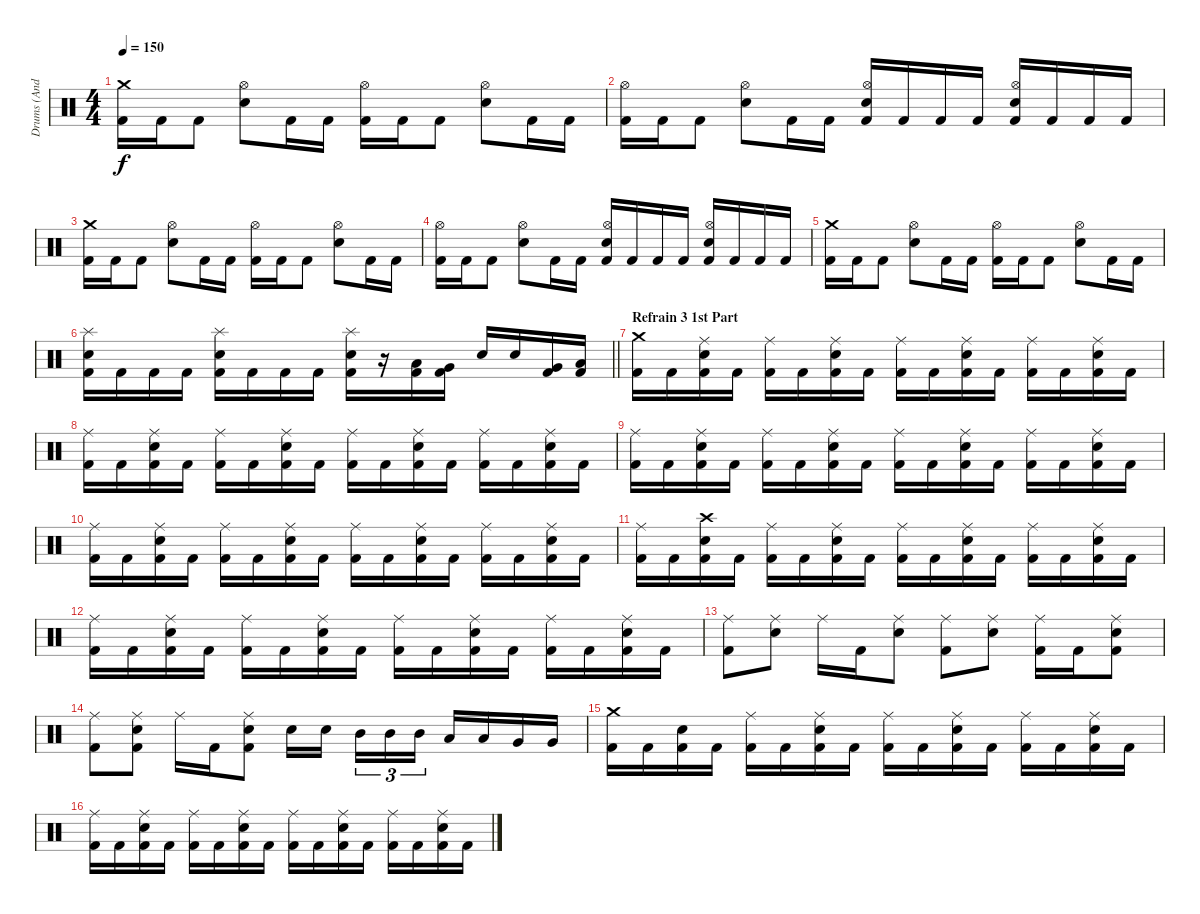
\track ("Drums (Andy C)" "Drums (And") {instrument percussion}
\staff
\articulation defaults
\ts (4 4)
\tempo 150
\clef neutral
\ks c
("Crash medium (hit)" "Kick (hit) 2").16{dy f} "Kick (hit) 2".16 "Kick (hit) 2".8 ("Hi-Hat (open)" "Electric Snare (hit)").8 "Kick (hit) 2".16 "Kick (hit) 2".16 ("Hi-Hat (open)" "Kick (hit) 2").16 "Kick (hit) 2".16 "Kick (hit) 2".8 ("Hi-Hat (open)" "Electric Snare (hit)").8 "Kick (hit) 2".16 "Kick (hit) 2".16 |
("Hi-Hat (open)" "Kick (hit) 2").16 "Kick (hit) 2".16 "Kick (hit) 2".8 ("Hi-Hat (open)" "Electric Snare (hit)").8 "Kick (hit) 2".16 "Kick (hit) 2".16 ("Hi-Hat (open)" "Kick (hit) 2" "Electric Snare (hit)").16 "Kick (hit) 2".16 "Kick (hit) 2".16 "Kick (hit) 2".16 ("Hi-Hat (open)" "Kick (hit) 2" "Electric Snare (hit)").16 "Kick (hit) 2".16 "Kick (hit) 2".16 "Kick (hit) 2".16 |
("Crash medium (hit)" "Kick (hit) 2").16 "Kick (hit) 2".16 "Kick (hit) 2".8 ("Hi-Hat (open)" "Electric Snare (hit)").8 "Kick (hit) 2".16 "Kick (hit) 2".16 ("Hi-Hat (open)" "Kick (hit) 2").16 "Kick (hit) 2".16 "Kick (hit) 2".8 ("Hi-Hat (open)" "Electric Snare (hit)").8 "Kick (hit) 2".16 "Kick (hit) 2".16 |
("Hi-Hat (open)" "Kick (hit) 2").16 "Kick (hit) 2".16 "Kick (hit) 2".8 ("Hi-Hat (open)" "Electric Snare (hit)").8 "Kick (hit) 2".16 "Kick (hit) 2".16 ("Hi-Hat (open)" "Kick (hit) 2" "Electric Snare (hit)").16 "Kick (hit) 2".16 "Kick (hit) 2".16 "Kick (hit) 2".16 ("Hi-Hat (open)" "Kick (hit) 2" "Electric Snare (hit)").16 "Kick (hit) 2".16 "Kick (hit) 2".16 "Kick (hit) 2".16 |
("Crash medium (hit)" "Kick (hit) 2").16 "Kick (hit) 2".16 "Kick (hit) 2".8 ("Hi-Hat (open)" "Electric Snare (hit)").8 "Kick (hit) 2".16 "Kick (hit) 2".16 ("Hi-Hat (open)" "Kick (hit) 2").16 "Kick (hit) 2".16 "Kick (hit) 2".8 ("Hi-Hat (open)" "Electric Snare (hit)").8 "Kick (hit) 2".16 "Kick (hit) 2".16 |
\barLineRight lightlight
("Splash (hit)" "Kick (hit) 2" "Electric Snare (hit)").16 "Kick (hit) 2".16 "Kick (hit) 2".16 "Kick (hit) 2".16 ("Splash (hit)" "Kick (hit) 2" "Electric Snare (hit)").16 "Kick (hit) 2".16 "Kick (hit) 2".16 "Kick (hit) 2".16 ("Splash (hit)" "Kick (hit) 2" "Electric Snare (hit)").16 r.16 ("Low Tom (hit)" "Kick (hit) 2").16 ("Very Low Tom (hit)" "Kick (hit) 2").16 "Electric Snare (hit)".16 "Electric Snare (hit)".16 ("Very Low Tom (hit)" "Kick (hit) 2").16 ("Low Floor Tom (hit)" "Kick (hit) 2").16 |
\section ("" "Refrain 3 1st Part")
("Crash medium (hit)" "Kick (hit) 2").16 "Kick (hit) 2".16 ("Ride (middle)" "Kick (hit) 2" "Electric Snare (hit)").16 "Kick (hit) 2".16 ("Ride (middle)" "Kick (hit) 2").16 "Kick (hit) 2".16 ("Ride (middle)" "Kick (hit) 2" "Electric Snare (hit)").16 "Kick (hit) 2".16 ("Ride (middle)" "Kick (hit) 2").16 "Kick (hit) 2".16 ("Ride (middle)" "Kick (hit) 2" "Electric Snare (hit)").16 "Kick (hit) 2".16 ("Ride (middle)" "Kick (hit) 2").16 "Kick (hit) 2".16 ("Ride (middle)" "Kick (hit) 2" "Electric Snare (hit)").16 "Kick (hit) 2".16 |
("Ride (middle)" "Kick (hit) 2").16 "Kick (hit) 2".16 ("Ride (middle)" "Kick (hit) 2" "Electric Snare (hit)").16 "Kick (hit) 2".16 ("Ride (middle)" "Kick (hit) 2").16 "Kick (hit) 2".16 ("Ride (middle)" "Kick (hit) 2" "Electric Snare (hit)").16 "Kick (hit) 2".16 ("Ride (middle)" "Kick (hit) 2").16 "Kick (hit) 2".16 ("Ride (middle)" "Kick (hit) 2" "Electric Snare (hit)").16 "Kick (hit) 2".16 ("Ride (middle)" "Kick (hit) 2").16 "Kick (hit) 2".16 ("Ride (middle)" "Kick (hit) 2" "Electric Snare (hit)").16 "Kick (hit) 2".16 |
("Ride (middle)" "Kick (hit) 2").16 "Kick (hit) 2".16 ("Ride (middle)" "Kick (hit) 2" "Electric Snare (hit)").16 "Kick (hit) 2".16 ("Ride (middle)" "Kick (hit) 2").16 "Kick (hit) 2".16 ("Ride (middle)" "Kick (hit) 2" "Electric Snare (hit)").16 "Kick (hit) 2".16 ("Ride (middle)" "Kick (hit) 2").16 "Kick (hit) 2".16 ("Ride (middle)" "Kick (hit) 2" "Electric Snare (hit)").16 "Kick (hit) 2".16 ("Ride (middle)" "Kick (hit) 2").16 "Kick (hit) 2".16 ("Ride (middle)" "Kick (hit) 2" "Electric Snare (hit)").16 "Kick (hit) 2".16 |
("Ride (middle)" "Kick (hit) 2").16 "Kick (hit) 2".16 ("Ride (middle)" "Kick (hit) 2" "Electric Snare (hit)").16 "Kick (hit) 2".16 ("Ride (middle)" "Kick (hit) 2").16 "Kick (hit) 2".16 ("Ride (middle)" "Kick (hit) 2" "Electric Snare (hit)").16 "Kick (hit) 2".16 ("Ride (middle)" "Kick (hit) 2").16 "Kick (hit) 2".16 ("Ride (middle)" "Kick (hit) 2" "Electric Snare (hit)").16 "Kick (hit) 2".16 ("Ride (middle)" "Kick (hit) 2").16 "Kick (hit) 2".16 ("Ride (middle)" "Kick (hit) 2" "Electric Snare (hit)").16 "Kick (hit) 2".16 |
("Ride (middle)" "Kick (hit) 2").16 "Kick (hit) 2".16 ("Crash high (hit)" "Kick (hit) 2" "Electric Snare (hit)").16 "Kick (hit) 2".16 ("Ride (middle)" "Kick (hit) 2").16 "Kick (hit) 2".16 ("Ride (middle)" "Kick (hit) 2" "Electric Snare (hit)").16 "Kick (hit) 2".16 ("Ride (middle)" "Kick (hit) 2").16 "Kick (hit) 2".16 ("Ride (middle)" "Kick (hit) 2" "Electric Snare (hit)").16 "Kick (hit) 2".16 ("Ride (middle)" "Kick (hit) 2").16 "Kick (hit) 2".16 ("Ride (middle)" "Kick (hit) 2" "Electric Snare (hit)").16 "Kick (hit) 2".16 |
("Ride (middle)" "Kick (hit) 2").16 "Kick (hit) 2".16 ("Ride (middle)" "Kick (hit) 2" "Electric Snare (hit)").16 "Kick (hit) 2".16 ("Ride (middle)" "Kick (hit) 2").16 "Kick (hit) 2".16 ("Ride (middle)" "Kick (hit) 2" "Electric Snare (hit)").16 "Kick (hit) 2".16 ("Ride (middle)" "Kick (hit) 2").16 "Kick (hit) 2".16 ("Ride (middle)" "Kick (hit) 2" "Electric Snare (hit)").16 "Kick (hit) 2".16 ("Ride (middle)" "Kick (hit) 2").16 "Kick (hit) 2".16 ("Ride (middle)" "Kick (hit) 2" "Electric Snare (hit)").16 "Kick (hit) 2".16 |
("Ride (middle)" "Kick (hit) 2").8 ("Ride (middle)" "Electric Snare (hit)").8 "Ride (middle)".16 "Kick (hit) 2".16 ("Ride (middle)" "Electric Snare (hit)").8 ("Ride (middle)" "Kick (hit) 2").8 ("Ride (middle)" "Electric Snare (hit)").8 ("Ride (middle)" "Kick (hit) 2").16 "Kick (hit) 2".16 ("Ride (middle)" "Kick (hit) 2" "Electric Snare (hit)").8 |
("Ride (middle)" "Kick (hit) 2").8 ("Ride (middle)" "Kick (hit) 2" "Electric Snare (hit)").8 "Ride (middle)".16 "Kick (hit) 2".16 ("Ride (middle)" "Kick (hit) 2" "Electric Snare (hit)").8 "Electric Snare (hit)".16 "Electric Snare (hit)".16{beam splitsecondary} "Mid Tom (hit)".16{tu (3 2)} "Mid Tom (hit)".16{tu (3 2)} "Mid Tom (hit)".16{tu (3 2)} "Low Tom (hit)".16 "Low Tom (hit)".16 "Very Low Tom (hit)".16 "Very Low Tom (hit)".16 |
("Crash medium (hit)" "Kick (hit) 2").16 "Kick (hit) 2".16 ("Kick (hit) 2" "Electric Snare (hit)").16 "Kick (hit) 2".16 ("Ride (middle)" "Kick (hit) 2").16 "Kick (hit) 2".16 ("Ride (middle)" "Kick (hit) 2" "Electric Snare (hit)").16 "Kick (hit) 2".16 ("Ride (middle)" "Kick (hit) 2").16 "Kick (hit) 2".16 ("Ride (middle)" "Kick (hit) 2" "Electric Snare (hit)").16 "Kick (hit) 2".16 ("Ride (middle)" "Kick (hit) 2").16 "Kick (hit) 2".16 ("Ride (middle)" "Kick (hit) 2" "Electric Snare (hit)").16 "Kick (hit) 2".16 |
("Ride (middle)" "Kick (hit) 2").16 "Kick (hit) 2".16 ("Ride (middle)" "Kick (hit) 2" "Electric Snare (hit)").16 "Kick (hit) 2".16 ("Ride (middle)" "Kick (hit) 2").16 "Kick (hit) 2".16 ("Ride (middle)" "Kick (hit) 2" "Electric Snare (hit)").16 "Kick (hit) 2".16 ("Ride (middle)" "Kick (hit) 2").16 "Kick (hit) 2".16 ("Ride (middle)" "Kick (hit) 2" "Electric Snare (hit)").16 "Kick (hit) 2".16 ("Ride (middle)" "Kick (hit) 2").16 "Kick (hit) 2".16 ("Ride (middle)" "Kick (hit) 2" "Electric Snare (hit)").16 "Kick (hit) 2".16
